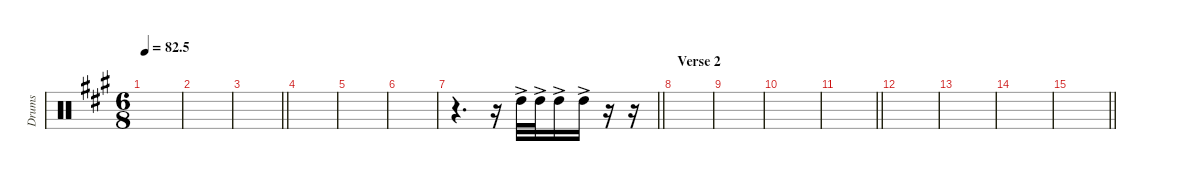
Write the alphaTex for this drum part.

\defaultSystemsLayout 4
\hideDynamics
\bracketExtendMode nobrackets
\otherSystemsTrackNameOrientation horizontal
\track ("Tom 01" "Drums") {instrument percussion}
\staff {score}
\articulation defaults
\ts (6 8)
\tempo
82.5
\accidentals auto
\clef neutral
\ottava regular
\simile none
\scale
0.333333
\ks a
|
\scale
0.333333 |
\scale
0.333333
\barLineRight lightlight
|
\scale
0.333333 |
\scale
0.333333 |
\scale
0.333333 |
\scale
0.333333
\barLineRight lightlight
r.4{d} r.16 "High Tom (hit)"{ac acc forcenatural}.32 "High Tom (hit)"{ac acc forcenatural}.32 "High Tom (hit)"{ac acc forcenatural}.16 "High Tom (hit)"{ac acc forcenatural}.16 r.16 r.16 |
\section ("" "Verse 2")
\scale
0.333333 |
\scale
0.333333 |
\scale
0.333333 |
\scale
0.333333
\barLineRight lightlight
|
\scale
0.333333 |
\scale
0.333333 |
\scale
0.333333 |
\scale
0.333333
\barLineRight lightlight
|
\scale
0.333333
